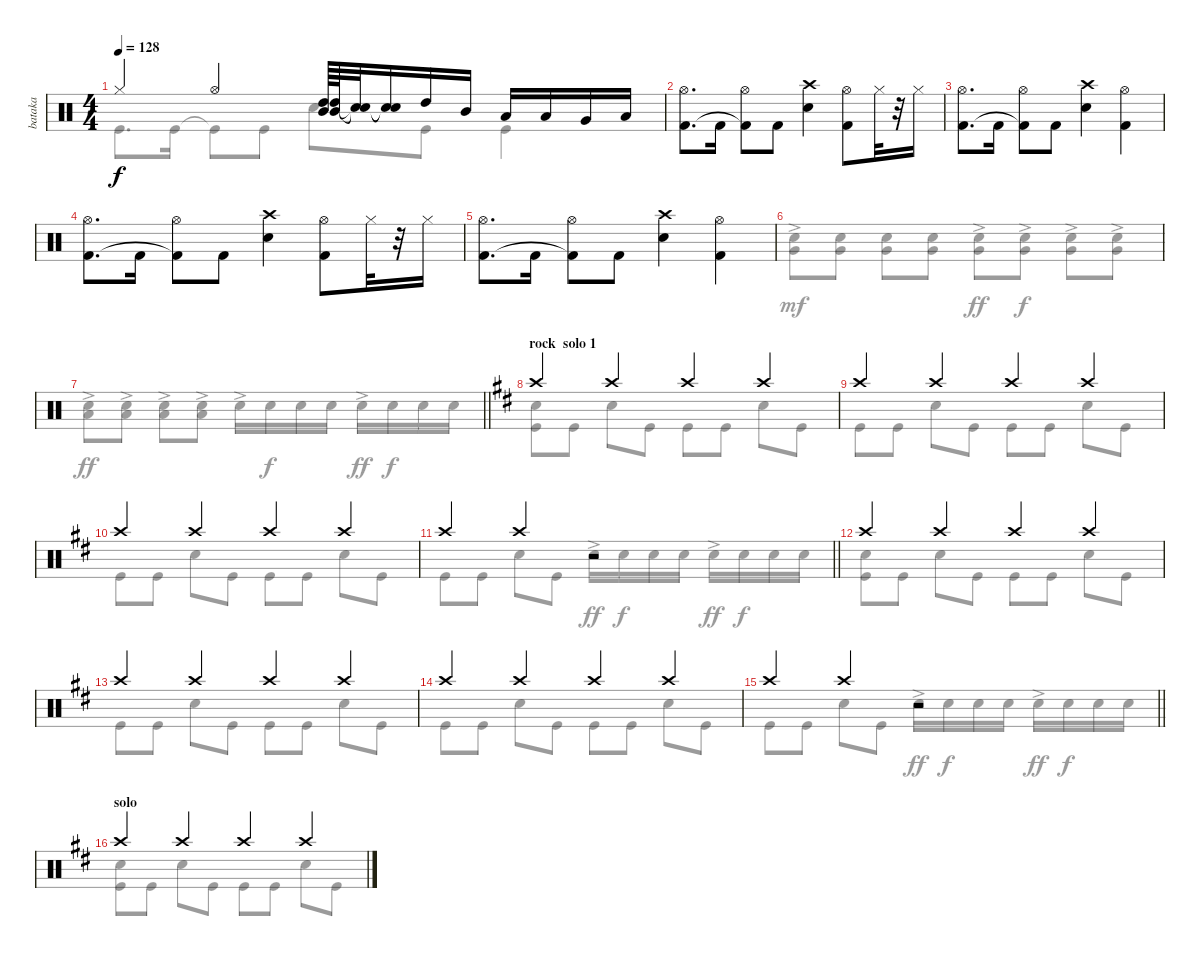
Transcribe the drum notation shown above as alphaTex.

\track ("bataka" "bataka") {mute instrument percussion}
\staff {score}
\articulation defaults
\voice
\ts (4 4)
\tempo 128
\clef neutral
\ks c "Hi-Hat (closed)".4{dy f} "Hi-Hat (open)".4
("High Tom (hit)" "Mid Tom (hit)").64 ("High Tom (hit)" "Mid Tom (hit)").64 ("Snare (hit)"{t} "Snare (hit)"{t}).32 ("Snare (hit)"{t} "Snare (hit)"{t}).16 "High Tom (hit)".16 "Mid Tom (hit)".16 "Low Tom (hit)".16 "Low Tom (hit)".16 "Very Low Tom (hit)".16 "Low Floor Tom (hit)".16 |
("Hi-Hat (open)" "Kick (hit) 2").8{d} "Kick (hit) 2".16 ("Hi-Hat (open)" "Kick (hit) 2"{t}).8 "Kick (hit) 2".8 ("Crash high (hit)" "Electric Snare (hit)").4 ("Hi-Hat (open)" "Kick (hit) 2").8 "Hi-Hat (closed)".32 r.32 "Hi-Hat (closed)".16 |
("Hi-Hat (open)" "Kick (hit) 2").8{d} "Kick (hit) 2".16 ("Hi-Hat (open)" "Kick (hit) 2"{t}).8 "Kick (hit) 2".8 ("Crash high (hit)" "Electric Snare (hit)").4 ("Hi-Hat (open)" "Kick (hit) 2").4 |
("Hi-Hat (open)" "Kick (hit) 2").8{d} "Kick (hit) 2".16 ("Hi-Hat (open)" "Kick (hit) 2"{t}).8 "Kick (hit) 2".8 ("Crash high (hit)" "Electric Snare (hit)").4 ("Hi-Hat (open)" "Kick (hit) 2").8 "Hi-Hat (closed)".32 r.32 "Hi-Hat (closed)".16 |
("Hi-Hat (open)" "Kick (hit) 2").8{d} "Kick (hit) 2".16 ("Hi-Hat (open)" "Kick (hit) 2"{t}).8 "Kick (hit) 2".8 ("Crash high (hit)" "Electric Snare (hit)").4 ("Hi-Hat (open)" "Kick (hit) 2").4 |
|
\barLineRight lightlight
|
\section ("" "rock  solo 1")
\ks bminor "Crash high (hit)".4 "Crash high (hit)".4 "Crash high (hit)".4 "Crash high (hit)".4
|
"Crash high (hit)".4 "Crash high (hit)".4 "Crash high (hit)".4 "Crash high (hit)".4 |
"Crash high (hit)".4 "Crash high (hit)".4 "Crash high (hit)".4 "Crash high (hit)".4 |
\barLineRight lightlight "Crash high (hit)".4 "Crash high (hit)".4
r.2 |
"Crash high (hit)".4 "Crash high (hit)".4 "Crash high (hit)".4 "Crash high (hit)".4 |
"Crash high (hit)".4 "Crash high (hit)".4 "Crash high (hit)".4 "Crash high (hit)".4 |
"Crash high (hit)".4 "Crash high (hit)".4 "Crash high (hit)".4 "Crash high (hit)".4 |
\barLineRight lightlight "Crash high (hit)".4 "Crash high (hit)".4
r.2 |
\section ("" "solo")
"Crash high (hit)".4 "Crash high (hit)".4 "Crash high (hit)".4 "Crash high (hit)".4
\voice
\clef neutral
\ottava regular
\simile none
\ks c "Kick (hit)".8{d dy f} "Kick (hit)".16 "Kick (hit)"{t}.8 "Kick (hit)".8 "Snare (hit) 2".8 "Kick (hit)".8 "Kick (hit)".4
|
|
|
|
|
("Very Low Tom (hit)" "Snare (hit) 2"{ac}).8{dy mf} ("Snare (hit) 2" "Very Low Tom (hit)").8 ("Very Low Tom (hit)" "Snare (hit) 2").8 ("Very Low Tom (hit)" "Snare (hit) 2").8 ("Very Low Tom (hit)"{ac} "Snare (hit) 2"{ac}).8{dy ff} ("Very Low Tom (hit)"{ac} "Snare (hit) 2"{ac}).8{dy f} ("Very Low Tom (hit)"{ac} "Snare (hit) 2"{ac}).8 ("Very Low Tom (hit)"{ac} "Snare (hit) 2"{ac}).8 |
\barLineRight lightlight
("Low Floor Tom (hit)"{ac} "Snare (hit) 2"{ac}).8{dy ff} ("Snare (hit) 2"{ac} "Low Floor Tom (hit)"{ac}).8 ("Low Floor Tom (hit)"{ac} "Snare (hit) 2"{ac}).8 ("Snare (hit) 2"{ac} "Low Floor Tom (hit)"{ac}).8 "Snare (hit) 2"{ac}.16 "Snare (hit) 2".16{dy f} "Snare (hit) 2".16 "Snare (hit) 2".16 "Snare (hit) 2"{ac}.16{dy ff} "Snare (hit) 2".16{dy f} "Snare (hit) 2".16 "Snare (hit) 2".16 |
\ks bminor
("Kick (hit)" "Snare (hit) 2").8 "Kick (hit)".8 "Snare (hit) 2".8 "Kick (hit)".8 "Kick (hit)".8 "Kick (hit)".8 "Snare (hit) 2".8 "Kick (hit)".8 |
"Kick (hit)".8 "Kick (hit)".8 "Snare (hit) 2".8 "Kick (hit)".8 "Kick (hit)".8 "Kick (hit)".8 "Snare (hit) 2".8 "Kick (hit)".8 |
"Kick (hit)".8 "Kick (hit)".8 "Snare (hit) 2".8 "Kick (hit)".8 "Kick (hit)".8 "Kick (hit)".8 "Snare (hit) 2".8 "Kick (hit)".8 |
\barLineRight lightlight "Kick (hit)".8 "Kick (hit)".8 "Snare (hit) 2".8 "Kick (hit)".8 "Snare (hit) 2"{ac}.16{dy ff} "Snare (hit) 2".16{dy f} "Snare (hit) 2".16 "Snare (hit) 2".16 "Snare (hit) 2"{ac}.16{dy ff} "Snare (hit) 2".16{dy f} "Snare (hit) 2".16 "Snare (hit) 2".16
|
("Kick (hit)" "Snare (hit) 2").8 "Kick (hit)".8 "Snare (hit) 2".8 "Kick (hit)".8 "Kick (hit)".8 "Kick (hit)".8 "Snare (hit) 2".8 "Kick (hit)".8 |
"Kick (hit)".8 "Kick (hit)".8 "Snare (hit) 2".8 "Kick (hit)".8 "Kick (hit)".8 "Kick (hit)".8 "Snare (hit) 2".8 "Kick (hit)".8 |
"Kick (hit)".8 "Kick (hit)".8 "Snare (hit) 2".8 "Kick (hit)".8 "Kick (hit)".8 "Kick (hit)".8 "Snare (hit) 2".8 "Kick (hit)".8 |
\barLineRight lightlight "Kick (hit)".8 "Kick (hit)".8 "Snare (hit) 2".8 "Kick (hit)".8 "Snare (hit) 2"{ac}.16{dy ff} "Snare (hit) 2".16{dy f} "Snare (hit) 2".16 "Snare (hit) 2".16 "Snare (hit) 2"{ac}.16{dy ff} "Snare (hit) 2".16{dy f} "Snare (hit) 2".16 "Snare (hit) 2".16
|
("Kick (hit)" "Snare (hit) 2").8 "Kick (hit)".8 "Snare (hit) 2".8 "Kick (hit)".8 "Kick (hit)".8 "Kick (hit)".8 "Snare (hit) 2".8 "Kick (hit)".8
